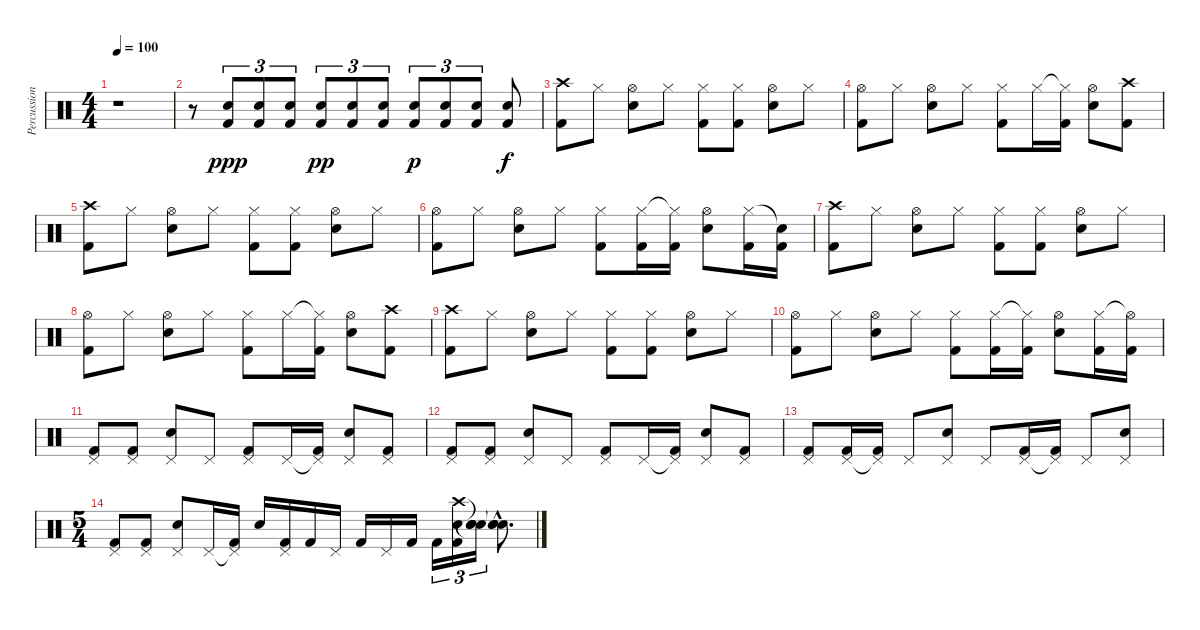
\track ("Percussions" "Percussion") {instrument percussion}
\staff {score}
\articulation defaults
\ts (4 4)
\tempo 100
\clef neutral
\ks c
r.1{dy f} |
r.8 ("Snare (hit) 2" "Kick (hit) 2").8{tu (3 2) dy ppp} ("Snare (hit) 2" "Kick (hit) 2").8{tu (3 2)} ("Snare (hit) 2" "Kick (hit) 2").8{tu (3 2)} ("Snare (hit) 2" "Kick (hit) 2").8{tu (3 2) dy pp} ("Snare (hit) 2" "Kick (hit) 2").8{tu (3 2)} ("Snare (hit) 2" "Kick (hit) 2").8{tu (3 2)} ("Snare (hit) 2" "Kick (hit) 2").8{tu (3 2) dy p} ("Snare (hit) 2" "Kick (hit) 2").8{tu (3 2)} ("Snare (hit) 2" "Kick (hit) 2").8{tu (3 2)} ("Snare (hit) 2" "Kick (hit) 2").8{dy f} |
("Crash high (hit)" "Kick (hit) 2").8 "Hi-Hat (closed)".8 ("Hi-Hat (open)" "Snare (hit) 2").8 "Hi-Hat (closed)".8 ("Hi-Hat (closed)" "Kick (hit) 2").8 ("Hi-Hat (closed)" "Kick (hit) 2").8 ("Hi-Hat (open)" "Snare (hit) 2").8 "Hi-Hat (closed)".8 |
("Hi-Hat (open)" "Kick (hit) 2").8 "Hi-Hat (closed)".8 ("Hi-Hat (open)" "Snare (hit) 2").8 "Hi-Hat (closed)".8 ("Hi-Hat (closed)" "Kick (hit) 2").8 "Hi-Hat (closed)".16 ("Hi-Hat (closed)"{t} "Kick (hit) 2").16 ("Hi-Hat (open)" "Snare (hit) 2").8 ("Crash high (hit)" "Kick (hit) 2").8 |
("Crash high (hit)" "Kick (hit) 2").8 "Hi-Hat (closed)".8 ("Hi-Hat (open)" "Snare (hit) 2").8 "Hi-Hat (closed)".8 ("Hi-Hat (closed)" "Kick (hit) 2").8 ("Hi-Hat (closed)" "Kick (hit) 2").8 ("Hi-Hat (open)" "Snare (hit) 2").8 "Hi-Hat (closed)".8 |
("Hi-Hat (open)" "Kick (hit) 2").8 "Hi-Hat (closed)".8 ("Hi-Hat (open)" "Snare (hit) 2").8 "Hi-Hat (closed)".8 ("Hi-Hat (closed)" "Kick (hit) 2").8 ("Hi-Hat (closed)" "Kick (hit) 2").16 ("Hi-Hat (closed)"{t} "Kick (hit) 2").16 ("Hi-Hat (open)" "Snare (hit) 2").8 ("Hi-Hat (closed)" "Kick (hit) 2").16 ("Snare (hit)"{t} "Kick (hit) 2").16 |
("Crash high (hit)" "Kick (hit) 2").8 "Hi-Hat (closed)".8 ("Hi-Hat (open)" "Snare (hit) 2").8 "Hi-Hat (closed)".8 ("Hi-Hat (closed)" "Kick (hit) 2").8 ("Hi-Hat (closed)" "Kick (hit) 2").8 ("Hi-Hat (open)" "Snare (hit) 2").8 "Hi-Hat (closed)".8 |
("Hi-Hat (open)" "Kick (hit) 2").8 "Hi-Hat (closed)".8 ("Hi-Hat (open)" "Snare (hit) 2").8 "Hi-Hat (closed)".8 ("Hi-Hat (closed)" "Kick (hit) 2").8 "Hi-Hat (closed)".16 ("Hi-Hat (closed)"{t} "Kick (hit) 2").16 ("Hi-Hat (open)" "Snare (hit) 2").8 ("Crash high (hit)" "Kick (hit) 2").8 |
("Crash high (hit)" "Kick (hit) 2").8 "Hi-Hat (closed)".8 ("Hi-Hat (open)" "Snare (hit) 2").8 "Hi-Hat (closed)".8 ("Hi-Hat (closed)" "Kick (hit) 2").8 ("Hi-Hat (closed)" "Kick (hit) 2").8 ("Hi-Hat (open)" "Snare (hit) 2").8 "Hi-Hat (closed)".8 |
("Hi-Hat (open)" "Kick (hit) 2").8 "Hi-Hat (closed)".8 ("Hi-Hat (open)" "Snare (hit) 2").8 "Hi-Hat (closed)".8 ("Hi-Hat (closed)" "Kick (hit) 2").8 ("Hi-Hat (closed)" "Kick (hit) 2").16 ("Hi-Hat (closed)"{t} "Kick (hit) 2").16 ("Hi-Hat (open)" "Snare (hit) 2").8 ("Hi-Hat (closed)" "Kick (hit) 2").16 ("Hi-Hat (open)"{t} "Kick (hit) 2").16 |
("Pedal Hi-Hat (hit)" "Kick (hit) 2").8 ("Pedal Hi-Hat (hit)" "Kick (hit) 2").8 ("Pedal Hi-Hat (hit)" "Snare (hit) 2").8 "Pedal Hi-Hat (hit)".8 ("Pedal Hi-Hat (hit)" "Kick (hit) 2").8 "Pedal Hi-Hat (hit)".16 ("Pedal Hi-Hat (hit)"{t} "Kick (hit) 2").16 ("Pedal Hi-Hat (hit)" "Snare (hit) 2").8 ("Pedal Hi-Hat (hit)" "Kick (hit) 2").8 |
("Pedal Hi-Hat (hit)" "Kick (hit) 2").8 ("Pedal Hi-Hat (hit)" "Kick (hit) 2").8 ("Pedal Hi-Hat (hit)" "Snare (hit) 2").8 "Pedal Hi-Hat (hit)".8 ("Pedal Hi-Hat (hit)" "Kick (hit) 2").8 "Pedal Hi-Hat (hit)".16 ("Pedal Hi-Hat (hit)"{t} "Kick (hit) 2").16 ("Pedal Hi-Hat (hit)" "Snare (hit) 2").8 ("Pedal Hi-Hat (hit)" "Kick (hit) 2").8 |
("Pedal Hi-Hat (hit)" "Kick (hit) 2").8 ("Pedal Hi-Hat (hit)" "Kick (hit) 2").16 ("Pedal Hi-Hat (hit)"{t} "Kick (hit) 2").16 "Pedal Hi-Hat (hit)".8 ("Pedal Hi-Hat (hit)" "Snare (hit) 2").8 "Pedal Hi-Hat (hit)".8 ("Pedal Hi-Hat (hit)" "Kick (hit) 2").16 ("Pedal Hi-Hat (hit)"{t} "Kick (hit) 2").16 "Pedal Hi-Hat (hit)".8 ("Pedal Hi-Hat (hit)" "Snare (hit) 2").8 |
\ts (5 4)
("Pedal Hi-Hat (hit)" "Kick (hit) 2").8 ("Pedal Hi-Hat (hit)" "Kick (hit) 2").8 ("Pedal Hi-Hat (hit)" "Snare (hit) 2").8 "Pedal Hi-Hat (hit)".16 ("Pedal Hi-Hat (hit)"{t} "Kick (hit) 2").16 "Snare (hit) 2".16 ("Pedal Hi-Hat (hit)" "Kick (hit) 2").16 "Kick (hit) 2".16 "Pedal Hi-Hat (hit)".16 "Kick (hit) 2".16 "Pedal Hi-Hat (hit)".16 "Kick (hit) 2".16 "Kick (hit) 2".16{tu (3 2)} ("Crash high (hit)" "Snare (hit) 2" "Kick (hit) 2").16{tu (3 2)} ("Snare (hit)"{t} "Snare (hit)"{t} "Snare (hit)"{t}).16{tu (3 2)} ("Snare (hit)"{hac t} "Snare (hit)"{hac t} "Snare (hit)"{hac t}).8{d}
